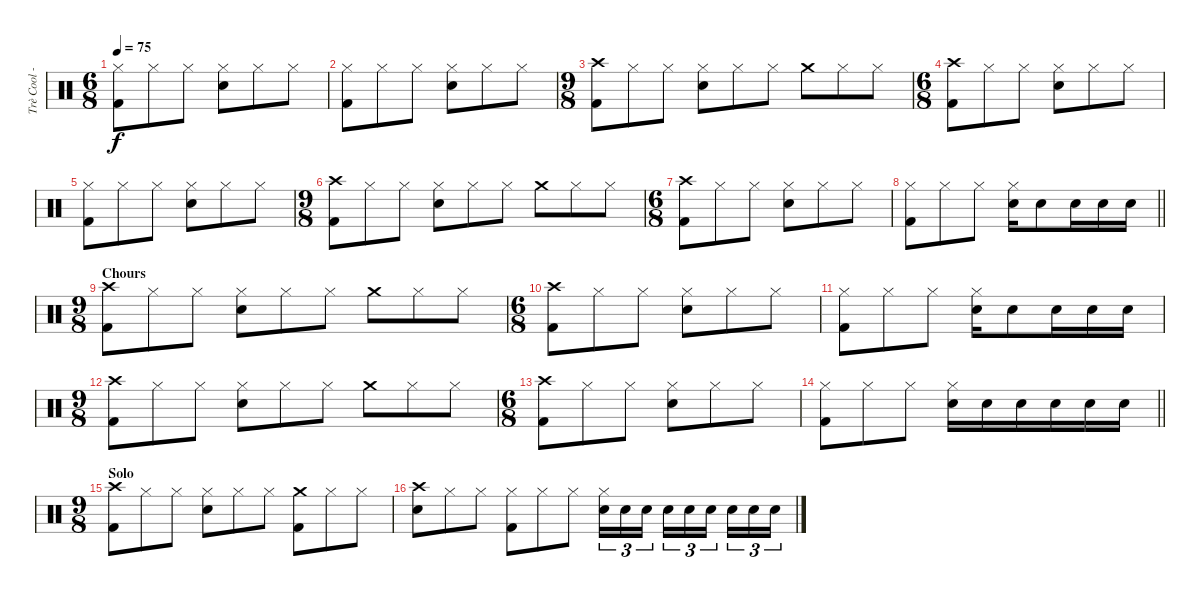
\track ("Trè Cool - Drums" "Trè Cool -") {instrument percussion}
\staff {score}
\articulation defaults
\ts (6 8)
\tempo 75
\clef neutral
\ks c
("Hi-Hat (closed)" "Kick (hit) 2").8{dy f} "Hi-Hat (closed)".8 "Hi-Hat (closed)".8 ("Hi-Hat (closed)" "Electric Snare (hit)").8 "Hi-Hat (closed)".8 "Hi-Hat (closed)".8 |
("Hi-Hat (closed)" "Kick (hit) 2").8 "Hi-Hat (closed)".8 "Hi-Hat (closed)".8 ("Hi-Hat (closed)" "Electric Snare (hit)").8 "Hi-Hat (closed)".8 "Hi-Hat (closed)".8 |
\ts (9 8)
("Crash high (hit)" "Kick (hit) 2").8 "Hi-Hat (closed)".8 "Hi-Hat (closed)".8 ("Hi-Hat (closed)" "Electric Snare (hit)").8 "Hi-Hat (closed)".8 "Hi-Hat (closed)".8 "Crash medium (hit)".8 "Hi-Hat (closed)".8 "Hi-Hat (closed)".8 |
\ts (6 8)
("Crash high (hit)" "Kick (hit) 2").8 "Hi-Hat (closed)".8 "Hi-Hat (closed)".8 ("Hi-Hat (closed)" "Electric Snare (hit)").8 "Hi-Hat (closed)".8 "Hi-Hat (closed)".8 |
("Hi-Hat (closed)" "Kick (hit) 2").8 "Hi-Hat (closed)".8 "Hi-Hat (closed)".8 ("Hi-Hat (closed)" "Electric Snare (hit)").8 "Hi-Hat (closed)".8 "Hi-Hat (closed)".8 |
\ts (9 8)
("Crash high (hit)" "Kick (hit) 2").8 "Hi-Hat (closed)".8 "Hi-Hat (closed)".8 ("Hi-Hat (closed)" "Electric Snare (hit)").8 "Hi-Hat (closed)".8 "Hi-Hat (closed)".8 "Crash medium (hit)".8 "Hi-Hat (closed)".8 "Hi-Hat (closed)".8 |
\ts (6 8)
("Crash high (hit)" "Kick (hit) 2").8 "Hi-Hat (closed)".8 "Hi-Hat (closed)".8 ("Hi-Hat (closed)" "Electric Snare (hit)").8 "Hi-Hat (closed)".8 "Hi-Hat (closed)".8 |
\barLineRight lightlight
("Hi-Hat (closed)" "Kick (hit) 2").8 "Hi-Hat (closed)".8 "Hi-Hat (closed)".8 ("Hi-Hat (closed)" "Electric Snare (hit)").16 "Electric Snare (hit)".8 "Electric Snare (hit)".16 "Electric Snare (hit)".16 "Electric Snare (hit)".16 |
\ts (9 8)
\section ("" "Chours")
("Crash high (hit)" "Kick (hit) 2").8 "Hi-Hat (closed)".8 "Hi-Hat (closed)".8 ("Hi-Hat (closed)" "Electric Snare (hit)").8 "Hi-Hat (closed)".8 "Hi-Hat (closed)".8 "Crash medium (hit)".8 "Hi-Hat (closed)".8 "Hi-Hat (closed)".8 |
\ts (6 8)
("Crash high (hit)" "Kick (hit) 2").8 "Hi-Hat (closed)".8 "Hi-Hat (closed)".8 ("Hi-Hat (closed)" "Electric Snare (hit)").8 "Hi-Hat (closed)".8 "Hi-Hat (closed)".8 |
("Hi-Hat (closed)" "Kick (hit) 2").8 "Hi-Hat (closed)".8 "Hi-Hat (closed)".8 ("Hi-Hat (closed)" "Electric Snare (hit)").16 "Electric Snare (hit)".8 "Electric Snare (hit)".16 "Electric Snare (hit)".16 "Electric Snare (hit)".16 |
\ts (9 8)
("Crash high (hit)" "Kick (hit) 2").8 "Hi-Hat (closed)".8 "Hi-Hat (closed)".8 ("Hi-Hat (closed)" "Electric Snare (hit)").8 "Hi-Hat (closed)".8 "Hi-Hat (closed)".8 "Crash medium (hit)".8 "Hi-Hat (closed)".8 "Hi-Hat (closed)".8 |
\ts (6 8)
("Crash high (hit)" "Kick (hit) 2").8 "Hi-Hat (closed)".8 "Hi-Hat (closed)".8 ("Hi-Hat (closed)" "Electric Snare (hit)").8 "Hi-Hat (closed)".8 "Hi-Hat (closed)".8 |
\barLineRight lightlight
("Hi-Hat (closed)" "Kick (hit) 2").8 "Hi-Hat (closed)".8 "Hi-Hat (closed)".8 ("Hi-Hat (closed)" "Electric Snare (hit)").16 "Electric Snare (hit)".16 "Electric Snare (hit)".16 "Electric Snare (hit)".16 "Electric Snare (hit)".16 "Electric Snare (hit)".16 |
\ts (9 8)
\section ("" "Solo")
("Crash high (hit)" "Kick (hit) 2").8 "Hi-Hat (closed)".8 "Hi-Hat (closed)".8 ("Hi-Hat (closed)" "Electric Snare (hit)").8 "Hi-Hat (closed)".8 "Hi-Hat (closed)".8 ("Crash medium (hit)" "Kick (hit) 2").8 "Hi-Hat (closed)".8 "Hi-Hat (closed)".8 |
("Crash high (hit)" "Electric Snare (hit)").8 "Hi-Hat (closed)".8 "Hi-Hat (closed)".8 ("Hi-Hat (closed)" "Kick (hit) 2").8 "Hi-Hat (closed)".8 "Hi-Hat (closed)".8 ("Hi-Hat (closed)" "Electric Snare (hit)").16{tu (3 2)} "Electric Snare (hit)".16{tu (3 2)} "Electric Snare (hit)".16{tu (3 2) beam splitsecondary} "Electric Snare (hit)".16{tu (3 2)} "Electric Snare (hit)".16{tu (3 2)} "Electric Snare (hit)".16{tu (3 2) beam splitsecondary} "Electric Snare (hit)".16{tu (3 2)} "Electric Snare (hit)".16{tu (3 2)} "Electric Snare (hit)".16{tu (3 2)}
